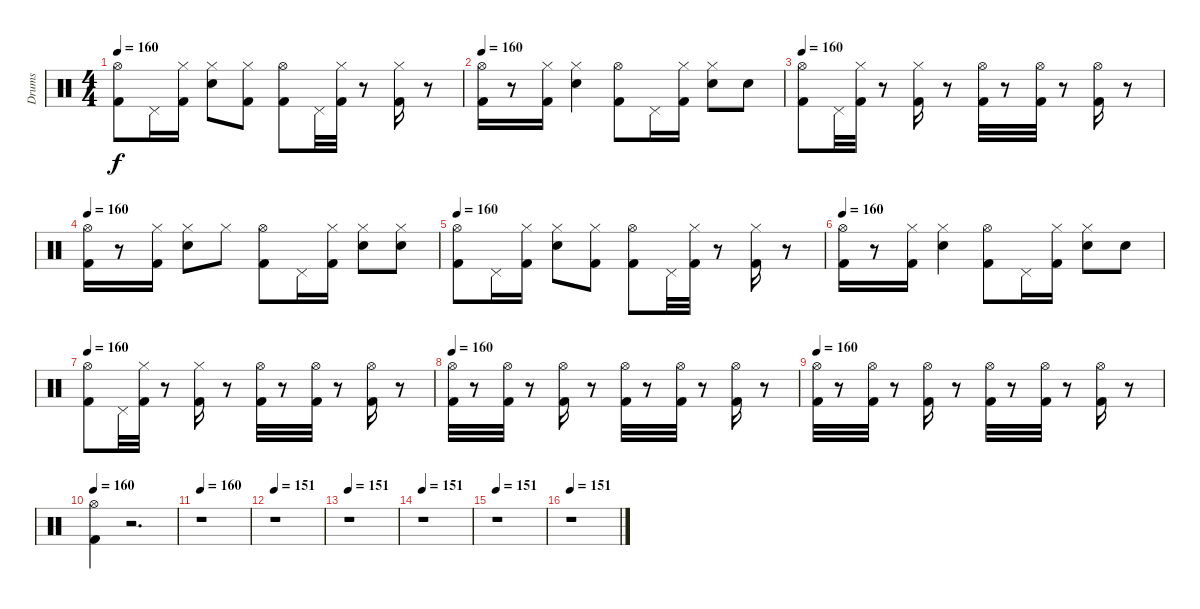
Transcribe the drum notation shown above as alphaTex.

\track ("Drums" "Drums") {instrument percussion}
\staff {score}
\articulation defaults
\ts (4 4)
\tempo 160
\clef neutral
\ks c
("Kick (hit) 2" "Hi-Hat (open)").8{dy f} "Pedal Hi-Hat (hit)".16 ("Kick (hit) 2" "Hi-Hat (closed)").16 ("Snare (hit) 2" "Hi-Hat (closed)").8 ("Kick (hit) 2" "Hi-Hat (closed)").8 ("Kick (hit) 2" "Hi-Hat (open)").8 "Pedal Hi-Hat (hit)".32 ("Kick (hit) 2" "Hi-Hat (closed)").32 r.8 ("Kick (hit) 2" "Hi-Hat (closed)").16 r.8 |
\tempo 160
("Kick (hit) 2" "Hi-Hat (open)").16 r.8 ("Kick (hit) 2" "Hi-Hat (closed)").16 ("Snare (hit) 2" "Hi-Hat (closed)").4 ("Kick (hit) 2" "Hi-Hat (open)").8 "Pedal Hi-Hat (hit)".16 ("Kick (hit) 2" "Hi-Hat (closed)").16 ("Snare (hit) 2" "Hi-Hat (closed)").8 "Snare (hit) 2".8 |
\tempo 160
("Kick (hit) 2" "Hi-Hat (open)").8 "Pedal Hi-Hat (hit)".32 ("Kick (hit) 2" "Hi-Hat (closed)").32 r.8 ("Kick (hit) 2" "Hi-Hat (closed)").16 r.8 ("Kick (hit) 2" "Hi-Hat (open)").32 r.8 ("Kick (hit) 2" "Hi-Hat (open)").32 r.8 ("Kick (hit) 2" "Hi-Hat (open)").16 r.8 |
\tempo 160
("Kick (hit) 2" "Hi-Hat (open)").16 r.8 ("Kick (hit) 2" "Hi-Hat (closed)").16 ("Snare (hit) 2" "Hi-Hat (closed)").8 "Hi-Hat (closed)".8 ("Kick (hit) 2" "Hi-Hat (open)").8 "Pedal Hi-Hat (hit)".16 ("Kick (hit) 2" "Hi-Hat (closed)").16 ("Snare (hit) 2" "Hi-Hat (closed)").8 ("Snare (hit) 2" "Hi-Hat (closed)").8 |
\tempo 160
("Kick (hit) 2" "Hi-Hat (open)").8 "Pedal Hi-Hat (hit)".16 ("Kick (hit) 2" "Hi-Hat (closed)").16 ("Snare (hit) 2" "Hi-Hat (closed)").8 ("Kick (hit) 2" "Hi-Hat (closed)").8 ("Kick (hit) 2" "Hi-Hat (open)").8 "Pedal Hi-Hat (hit)".32 ("Kick (hit) 2" "Hi-Hat (closed)").32 r.8 ("Kick (hit) 2" "Hi-Hat (closed)").16 r.8 |
\tempo 160
("Kick (hit) 2" "Hi-Hat (open)").16 r.8 ("Kick (hit) 2" "Hi-Hat (closed)").16 ("Snare (hit) 2" "Hi-Hat (closed)").4 ("Kick (hit) 2" "Hi-Hat (open)").8 "Pedal Hi-Hat (hit)".16 ("Kick (hit) 2" "Hi-Hat (closed)").16 ("Snare (hit) 2" "Hi-Hat (closed)").8 "Snare (hit) 2".8 |
\tempo 160
("Kick (hit) 2" "Hi-Hat (open)").8 "Pedal Hi-Hat (hit)".32 ("Kick (hit) 2" "Hi-Hat (closed)").32 r.8 ("Kick (hit) 2" "Hi-Hat (closed)").16 r.8 ("Kick (hit) 2" "Hi-Hat (open)").32 r.8 ("Kick (hit) 2" "Hi-Hat (open)").32 r.8 ("Kick (hit) 2" "Hi-Hat (open)").16 r.8 |
\tempo 160
("Kick (hit) 2" "Hi-Hat (open)").32 r.8 ("Kick (hit) 2" "Hi-Hat (open)").32 r.8 ("Kick (hit) 2" "Hi-Hat (open)").16 r.8 ("Kick (hit) 2" "Hi-Hat (open)").32 r.8 ("Kick (hit) 2" "Hi-Hat (open)").32 r.8 ("Kick (hit) 2" "Hi-Hat (open)").16 r.8 |
\tempo 160
("Kick (hit) 2" "Hi-Hat (open)").32 r.8 ("Kick (hit) 2" "Hi-Hat (open)").32 r.8 ("Kick (hit) 2" "Hi-Hat (open)").16 r.8 ("Kick (hit) 2" "Hi-Hat (open)").32 r.8 ("Kick (hit) 2" "Hi-Hat (open)").32 r.8 ("Kick (hit) 2" "Hi-Hat (open)").16 r.8 |
\tempo 160
("Kick (hit) 2" "Hi-Hat (open)").4 r.2{d} |
\tempo 160
r.1 |
\tempo 151
r.1 |
\tempo 151
r.1 |
\tempo 151
r.1 |
\tempo 151
r.1 |
\tempo 151
r.1
